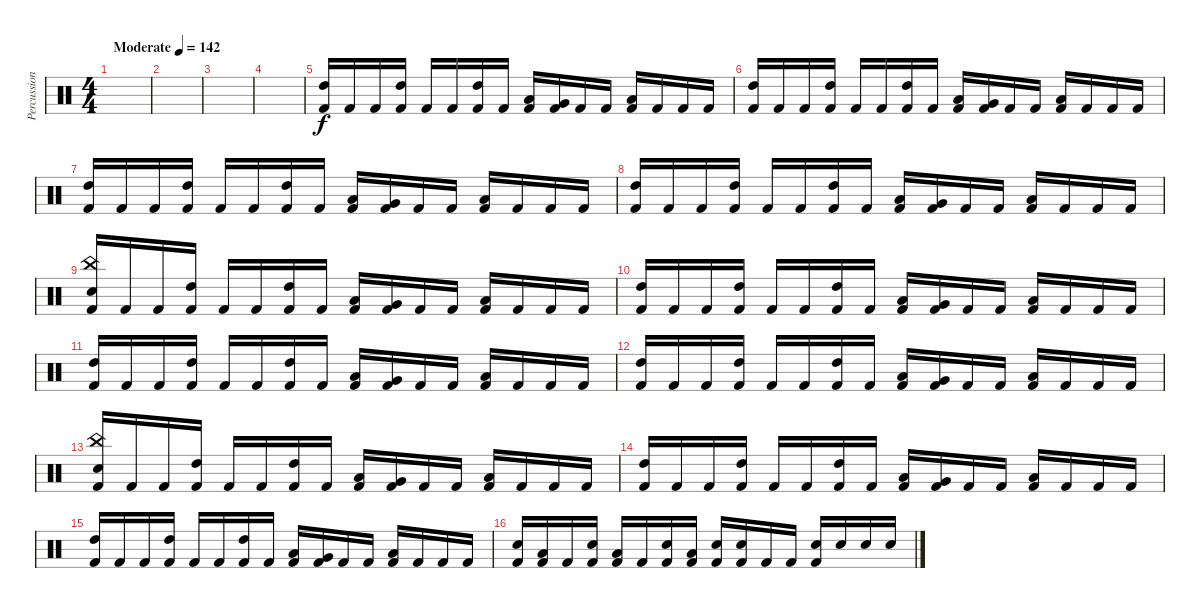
\track ("Percussion" "Percussion") {instrument percussion}
\staff {score}
\articulation defaults
\ts (4 4)
\tempo (142 "Moderate")
\clef neutral
\ks c
|
|
|
|
("High Tom (hit)" "Kick (hit) 2").16 "Kick (hit) 2".16 "Kick (hit) 2".16 ("High Tom (hit)" "Kick (hit) 2").16 "Kick (hit) 2".16 "Kick (hit) 2".16 ("High Tom (hit)" "Kick (hit) 2").16 "Kick (hit) 2".16 ("Low Floor Tom (hit)" "Kick (hit) 2").16 ("Very Low Tom (hit)" "Kick (hit) 2").16 "Kick (hit) 2".16 "Kick (hit) 2".16 ("Low Floor Tom (hit)" "Kick (hit) 2").16 "Kick (hit) 2".16 "Kick (hit) 2".16 "Kick (hit) 2".16 |
("High Tom (hit)" "Kick (hit) 2").16 "Kick (hit) 2".16 "Kick (hit) 2".16 ("High Tom (hit)" "Kick (hit) 2").16 "Kick (hit) 2".16 "Kick (hit) 2".16 ("High Tom (hit)" "Kick (hit) 2").16 "Kick (hit) 2".16 ("Low Floor Tom (hit)" "Kick (hit) 2").16 ("Very Low Tom (hit)" "Kick (hit) 2").16 "Kick (hit) 2".16 "Kick (hit) 2".16 ("Low Floor Tom (hit)" "Kick (hit) 2").16 "Kick (hit) 2".16 "Kick (hit) 2".16 "Kick (hit) 2".16 |
("High Tom (hit)" "Kick (hit) 2").16 "Kick (hit) 2".16 "Kick (hit) 2".16 ("High Tom (hit)" "Kick (hit) 2").16 "Kick (hit) 2".16 "Kick (hit) 2".16 ("High Tom (hit)" "Kick (hit) 2").16 "Kick (hit) 2".16 ("Low Floor Tom (hit)" "Kick (hit) 2").16 ("Very Low Tom (hit)" "Kick (hit) 2").16 "Kick (hit) 2".16 "Kick (hit) 2".16 ("Low Floor Tom (hit)" "Kick (hit) 2").16 "Kick (hit) 2".16 "Kick (hit) 2".16 "Kick (hit) 2".16 |
("High Tom (hit)" "Kick (hit) 2").16 "Kick (hit) 2".16 "Kick (hit) 2".16 ("High Tom (hit)" "Kick (hit) 2").16 "Kick (hit) 2".16 "Kick (hit) 2".16 ("High Tom (hit)" "Kick (hit) 2").16 "Kick (hit) 2".16 ("Low Floor Tom (hit)" "Kick (hit) 2").16 ("Very Low Tom (hit)" "Kick (hit) 2").16 "Kick (hit) 2".16 "Kick (hit) 2".16 ("Low Floor Tom (hit)" "Kick (hit) 2").16 "Kick (hit) 2".16 "Kick (hit) 2".16 "Kick (hit) 2".16 |
("China (hit)" "Snare (hit) 2" "Kick (hit) 2").16 "Kick (hit) 2".16 "Kick (hit) 2".16 ("High Tom (hit)" "Kick (hit) 2").16 "Kick (hit) 2".16 "Kick (hit) 2".16 ("High Tom (hit)" "Kick (hit) 2").16 "Kick (hit) 2".16 ("Low Floor Tom (hit)" "Kick (hit) 2").16 ("Very Low Tom (hit)" "Kick (hit) 2").16 "Kick (hit) 2".16 "Kick (hit) 2".16 ("Low Floor Tom (hit)" "Kick (hit) 2").16 "Kick (hit) 2".16 "Kick (hit) 2".16 "Kick (hit) 2".16 |
("High Tom (hit)" "Kick (hit) 2").16 "Kick (hit) 2".16 "Kick (hit) 2".16 ("High Tom (hit)" "Kick (hit) 2").16 "Kick (hit) 2".16 "Kick (hit) 2".16 ("High Tom (hit)" "Kick (hit) 2").16 "Kick (hit) 2".16 ("Low Floor Tom (hit)" "Kick (hit) 2").16 ("Very Low Tom (hit)" "Kick (hit) 2").16 "Kick (hit) 2".16 "Kick (hit) 2".16 ("Low Floor Tom (hit)" "Kick (hit) 2").16 "Kick (hit) 2".16 "Kick (hit) 2".16 "Kick (hit) 2".16 |
("High Tom (hit)" "Kick (hit) 2").16 "Kick (hit) 2".16 "Kick (hit) 2".16 ("High Tom (hit)" "Kick (hit) 2").16 "Kick (hit) 2".16 "Kick (hit) 2".16 ("High Tom (hit)" "Kick (hit) 2").16 "Kick (hit) 2".16 ("Low Floor Tom (hit)" "Kick (hit) 2").16 ("Very Low Tom (hit)" "Kick (hit) 2").16 "Kick (hit) 2".16 "Kick (hit) 2".16 ("Low Floor Tom (hit)" "Kick (hit) 2").16 "Kick (hit) 2".16 "Kick (hit) 2".16 "Kick (hit) 2".16 |
("High Tom (hit)" "Kick (hit) 2").16 "Kick (hit) 2".16 "Kick (hit) 2".16 ("High Tom (hit)" "Kick (hit) 2").16 "Kick (hit) 2".16 "Kick (hit) 2".16 ("High Tom (hit)" "Kick (hit) 2").16 "Kick (hit) 2".16 ("Low Floor Tom (hit)" "Kick (hit) 2").16 ("Very Low Tom (hit)" "Kick (hit) 2").16 "Kick (hit) 2".16 "Kick (hit) 2".16 ("Low Floor Tom (hit)" "Kick (hit) 2").16 "Kick (hit) 2".16 "Kick (hit) 2".16 "Kick (hit) 2".16 |
("China (hit)" "Snare (hit) 2" "Kick (hit) 2").16 "Kick (hit) 2".16 "Kick (hit) 2".16 ("High Tom (hit)" "Kick (hit) 2").16 "Kick (hit) 2".16 "Kick (hit) 2".16 ("High Tom (hit)" "Kick (hit) 2").16 "Kick (hit) 2".16 ("Low Floor Tom (hit)" "Kick (hit) 2").16 ("Very Low Tom (hit)" "Kick (hit) 2").16 "Kick (hit) 2".16 "Kick (hit) 2".16 ("Low Floor Tom (hit)" "Kick (hit) 2").16 "Kick (hit) 2".16 "Kick (hit) 2".16 "Kick (hit) 2".16 |
("High Tom (hit)" "Kick (hit) 2").16 "Kick (hit) 2".16 "Kick (hit) 2".16 ("High Tom (hit)" "Kick (hit) 2").16 "Kick (hit) 2".16 "Kick (hit) 2".16 ("High Tom (hit)" "Kick (hit) 2").16 "Kick (hit) 2".16 ("Low Floor Tom (hit)" "Kick (hit) 2").16 ("Very Low Tom (hit)" "Kick (hit) 2").16 "Kick (hit) 2".16 "Kick (hit) 2".16 ("Low Floor Tom (hit)" "Kick (hit) 2").16 "Kick (hit) 2".16 "Kick (hit) 2".16 "Kick (hit) 2".16 |
("High Tom (hit)" "Kick (hit) 2").16 "Kick (hit) 2".16 "Kick (hit) 2".16 ("High Tom (hit)" "Kick (hit) 2").16 "Kick (hit) 2".16 "Kick (hit) 2".16 ("High Tom (hit)" "Kick (hit) 2").16 "Kick (hit) 2".16 ("Low Floor Tom (hit)" "Kick (hit) 2").16 ("Very Low Tom (hit)" "Kick (hit) 2").16 "Kick (hit) 2".16 "Kick (hit) 2".16 ("Low Floor Tom (hit)" "Kick (hit) 2").16 "Kick (hit) 2".16 "Kick (hit) 2".16 "Kick (hit) 2".16 |
("Snare (hit) 2" "Kick (hit) 2").16 ("Low Floor Tom (hit)" "Kick (hit) 2").16 "Kick (hit) 2".16 ("Snare (hit) 2" "Kick (hit) 2").16 ("Low Floor Tom (hit)" "Kick (hit) 2").16 "Kick (hit) 2".16 ("Snare (hit) 2" "Kick (hit) 2").16 ("Low Floor Tom (hit)" "Kick (hit) 2").16 ("Snare (hit) 2" "Kick (hit) 2").16 ("Snare (hit) 2" "Kick (hit) 2").16 "Kick (hit) 2".16 "Kick (hit) 2".16 ("Snare (hit) 2" "Kick (hit) 2").16 "Snare (hit) 2".16 "Snare (hit) 2".16 "Snare (hit) 2".16
